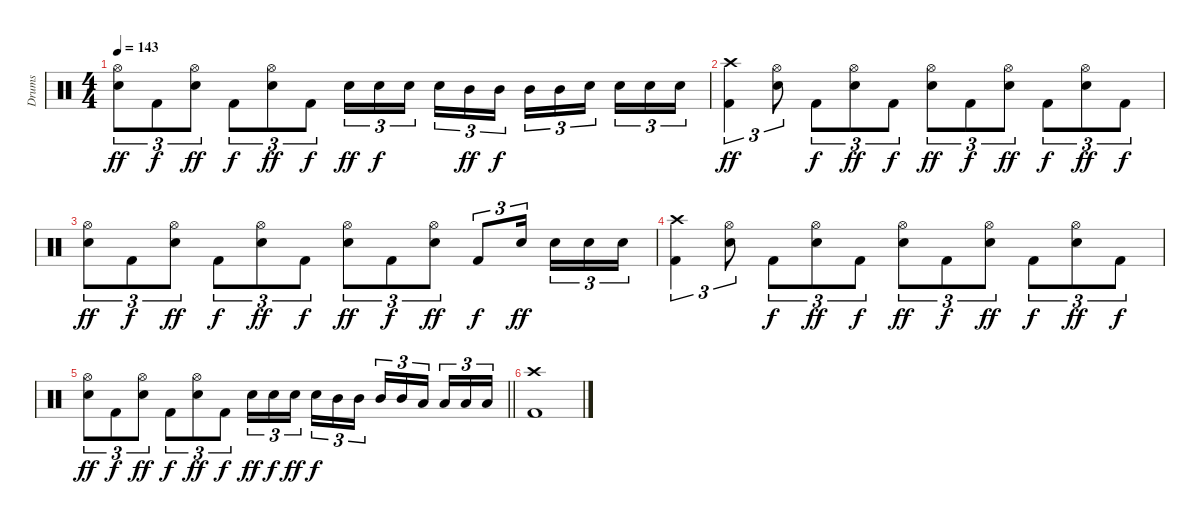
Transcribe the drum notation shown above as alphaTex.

\track ("Drums" "Drums") {instrument percussion}
\staff {score}
\articulation defaults
\ts (4 4)
\tempo 143
\clef neutral
\ks c
("Hi-Hat (open)" "Snare (hit) 2").8{tu (3 2) dy ff} "Kick (hit) 2".8{tu (3 2) dy f} ("Hi-Hat (open)" "Snare (hit) 2").8{tu (3 2) dy ff} "Kick (hit) 2".8{tu (3 2) dy f} ("Hi-Hat (open)" "Snare (hit) 2").8{tu (3 2) dy ff} "Kick (hit) 2".8{tu (3 2) dy f} "Snare (hit) 2".16{tu (3 2) dy ff} "Snare (hit) 2".16{tu (3 2) dy f} "Snare (hit) 2".16{tu (3 2) beam splitsecondary} "Snare (hit) 2".16{tu (3 2)} "Mid Tom (hit)".16{tu (3 2) dy ff} "Mid Tom (hit)".16{tu (3 2) dy f} "Mid Tom (hit)".16{tu (3 2)} "Mid Tom (hit)".16{tu (3 2)} "Snare (hit) 2".16{tu (3 2) beam splitsecondary} "Snare (hit) 2".16{tu (3 2)} "Snare (hit) 2".16{tu (3 2)} "Snare (hit) 2".16{tu (3 2)} |
("Crash high (hit)" "Kick (hit) 2").4{tu (3 2) dy ff} ("Hi-Hat (open)" "Snare (hit) 2").8{tu (3 2)} "Kick (hit) 2".8{tu (3 2) dy f} ("Hi-Hat (open)" "Snare (hit) 2").8{tu (3 2) dy ff} "Kick (hit) 2".8{tu (3 2) dy f} ("Hi-Hat (open)" "Snare (hit) 2").8{tu (3 2) dy ff} "Kick (hit) 2".8{tu (3 2) dy f} ("Hi-Hat (open)" "Snare (hit) 2").8{tu (3 2) dy ff} "Kick (hit) 2".8{tu (3 2) dy f} ("Hi-Hat (open)" "Snare (hit) 2").8{tu (3 2) dy ff} "Kick (hit) 2".8{tu (3 2) dy f} |
("Hi-Hat (open)" "Snare (hit) 2").8{tu (3 2) dy ff} "Kick (hit) 2".8{tu (3 2) dy f} ("Hi-Hat (open)" "Snare (hit) 2").8{tu (3 2) dy ff} "Kick (hit) 2".8{tu (3 2) dy f} ("Hi-Hat (open)" "Snare (hit) 2").8{tu (3 2) dy ff} "Kick (hit) 2".8{tu (3 2) dy f} ("Hi-Hat (open)" "Snare (hit) 2").8{tu (3 2) dy ff} "Kick (hit) 2".8{tu (3 2) dy f} ("Hi-Hat (open)" "Snare (hit) 2").8{tu (3 2) dy ff} "Kick (hit) 2".8{tu (3 2) dy f} "Snare (hit) 2".16{tu (3 2) dy ff beam splitsecondary} "Snare (hit) 2".16{tu (3 2)} "Snare (hit) 2".16{tu (3 2)} "Snare (hit) 2".16{tu (3 2)} |
("Crash high (hit)" "Kick (hit) 2").4{tu (3 2)} ("Hi-Hat (open)" "Snare (hit) 2").8{tu (3 2)} "Kick (hit) 2".8{tu (3 2) dy f} ("Hi-Hat (open)" "Snare (hit) 2").8{tu (3 2) dy ff} "Kick (hit) 2".8{tu (3 2) dy f} ("Hi-Hat (open)" "Snare (hit) 2").8{tu (3 2) dy ff} "Kick (hit) 2".8{tu (3 2) dy f} ("Hi-Hat (open)" "Snare (hit) 2").8{tu (3 2) dy ff} "Kick (hit) 2".8{tu (3 2) dy f} ("Hi-Hat (open)" "Snare (hit) 2").8{tu (3 2) dy ff} "Kick (hit) 2".8{tu (3 2) dy f} |
\barLineRight lightlight
("Hi-Hat (open)" "Snare (hit) 2").8{tu (3 2) dy ff} "Kick (hit) 2".8{tu (3 2) dy f} ("Hi-Hat (open)" "Snare (hit) 2").8{tu (3 2) dy ff} "Kick (hit) 2".8{tu (3 2) dy f} ("Hi-Hat (open)" "Snare (hit) 2").8{tu (3 2) dy ff} "Kick (hit) 2".8{tu (3 2) dy f} "Snare (hit) 2".16{tu (3 2) dy ff} "Snare (hit) 2".16{tu (3 2) dy f} "Snare (hit) 2".16{tu (3 2) dy ff beam splitsecondary} "Snare (hit) 2".16{tu (3 2) dy f} "Mid Tom (hit)".16{tu (3 2)} "Mid Tom (hit)".16{tu (3 2)} "Mid Tom (hit)".16{tu (3 2)} "Mid Tom (hit)".16{tu (3 2)} "Low Tom (hit)".16{tu (3 2) beam splitsecondary} "Low Tom (hit)".16{tu (3 2)} "Low Tom (hit)".16{tu (3 2)} "Low Tom (hit)".16{tu (3 2)} |
("Crash high (hit)" "Kick (hit) 2").1
